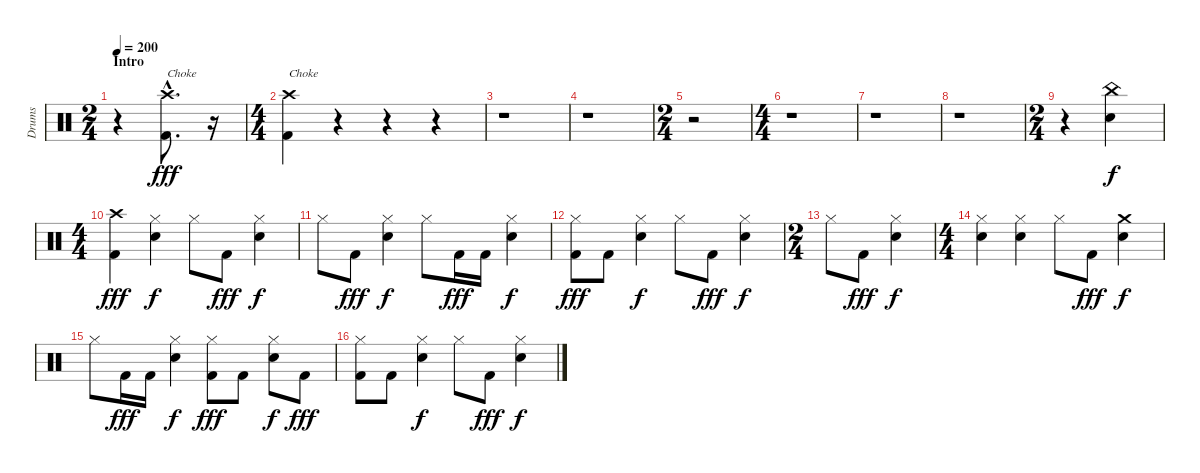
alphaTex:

\track ("Drums" "Drums") {instrument percussion}
\staff {score}
\articulation defaults
\ts (2 4)
\section ("" "Intro")
\tempo 200
\clef neutral
\ks c
r.4{dy fff} ("Crash high (hit)"{hac} "Kick (hit) 2"{hac}).8{d txt "Choke"} r.16{volume 0} |
\ts (4 4)
("Crash high (hit)" "Kick (hit) 2").4{txt "Choke" volume 16} r.4{volume 0} r.4 r.4 |
r.1 |
r.1{volume 16} |
\ts (2 4)
r.2 |
\ts (4 4)
r.1 |
r.1 |
r.1 |
\ts (2 4)
r.4 ("China (hit)" "Snare (hit) 2").4{dy f} |
\ts (4 4)
("Crash high (hit)" "Kick (hit) 2").4{dy fff} ("Hi-Hat (closed)" "Snare (hit) 2").4{dy f} "Hi-Hat (closed)".8 "Kick (hit) 2".8{dy fff} ("Hi-Hat (closed)" "Snare (hit) 2").4{dy f} |
"Hi-Hat (closed)".8 "Kick (hit) 2".8{dy fff} ("Hi-Hat (closed)" "Snare (hit) 2").4{dy f} "Hi-Hat (closed)".8 "Kick (hit) 2".16{dy fff} "Kick (hit) 2".16 ("Hi-Hat (closed)" "Snare (hit) 2").4{dy f} |
("Hi-Hat (closed)" "Kick (hit) 2").8{dy fff} "Kick (hit) 2".8 ("Hi-Hat (closed)" "Snare (hit) 2").4{dy f} "Hi-Hat (closed)".8 "Kick (hit) 2".8{dy fff} ("Hi-Hat (closed)" "Snare (hit) 2").4{dy f} |
\ts (2 4)
"Hi-Hat (closed)".8 "Kick (hit) 2".8{dy fff} ("Hi-Hat (closed)" "Snare (hit) 2").4{dy f} |
\ts (4 4)
("Hi-Hat (closed)" "Snare (hit) 2").4 ("Hi-Hat (closed)" "Snare (hit) 2").4 "Hi-Hat (closed)".8 "Kick (hit) 2".8{dy fff} ("Crash medium (hit)" "Snare (hit) 2").4{dy f} |
"Hi-Hat (closed)".8 "Kick (hit) 2".16{dy fff} "Kick (hit) 2".16 ("Hi-Hat (closed)" "Snare (hit) 2").4{dy f} ("Hi-Hat (closed)" "Kick (hit) 2").8{dy fff} "Kick (hit) 2".8 ("Hi-Hat (closed)" "Snare (hit) 2").8{dy f} "Kick (hit) 2".8{dy fff} |
("Hi-Hat (closed)" "Kick (hit) 2").8 "Kick (hit) 2".8 ("Hi-Hat (closed)" "Snare (hit) 2").4{dy f} "Hi-Hat (closed)".8 "Kick (hit) 2".8{dy fff} ("Hi-Hat (closed)" "Snare (hit) 2").4{dy f}
